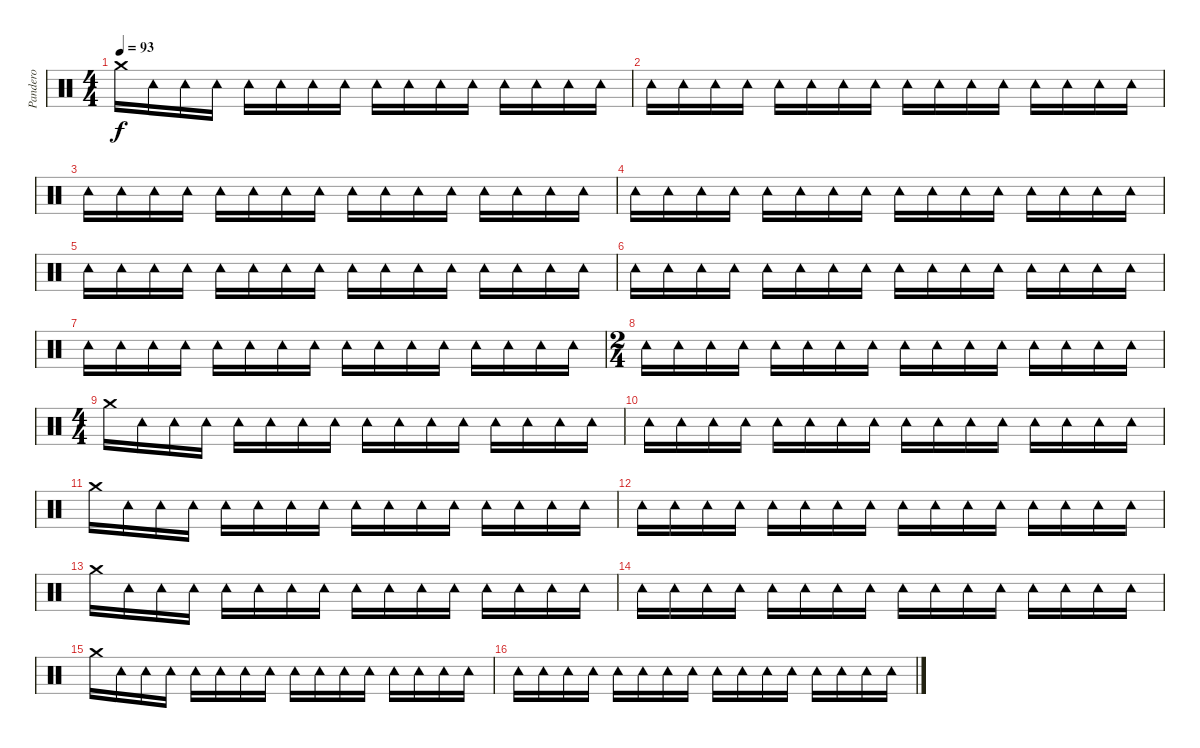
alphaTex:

\track ("Pandero" "Pandero") {instrument percussion bank 1}
\staff {score}
\articulation defaults
\ts (4 4)
\tempo 93
\clef neutral
\ks c "Crash medium (hit)".16{dy f} "Tambourine (hit)".16 "Tambourine (hit)".16 "Tambourine (hit)".16 "Tambourine (hit)".16 "Tambourine (hit)".16 "Tambourine (hit)".16 "Tambourine (hit)".16 "Tambourine (hit)".16 "Tambourine (hit)".16 "Tambourine (hit)".16 "Tambourine (hit)".16 "Tambourine (hit)".16 "Tambourine (hit)".16 "Tambourine (hit)".16 "Tambourine (hit)".16
|
"Tambourine (hit)".16 "Tambourine (hit)".16 "Tambourine (hit)".16 "Tambourine (hit)".16 "Tambourine (hit)".16 "Tambourine (hit)".16 "Tambourine (hit)".16 "Tambourine (hit)".16 "Tambourine (hit)".16 "Tambourine (hit)".16 "Tambourine (hit)".16 "Tambourine (hit)".16 "Tambourine (hit)".16 "Tambourine (hit)".16 "Tambourine (hit)".16 "Tambourine (hit)".16 |
"Tambourine (hit)".16 "Tambourine (hit)".16 "Tambourine (hit)".16 "Tambourine (hit)".16 "Tambourine (hit)".16 "Tambourine (hit)".16 "Tambourine (hit)".16 "Tambourine (hit)".16 "Tambourine (hit)".16 "Tambourine (hit)".16 "Tambourine (hit)".16 "Tambourine (hit)".16 "Tambourine (hit)".16 "Tambourine (hit)".16 "Tambourine (hit)".16 "Tambourine (hit)".16 |
"Tambourine (hit)".16 "Tambourine (hit)".16 "Tambourine (hit)".16 "Tambourine (hit)".16 "Tambourine (hit)".16 "Tambourine (hit)".16 "Tambourine (hit)".16 "Tambourine (hit)".16 "Tambourine (hit)".16 "Tambourine (hit)".16 "Tambourine (hit)".16 "Tambourine (hit)".16 "Tambourine (hit)".16 "Tambourine (hit)".16 "Tambourine (hit)".16 "Tambourine (hit)".16 |
"Tambourine (hit)".16 "Tambourine (hit)".16 "Tambourine (hit)".16 "Tambourine (hit)".16 "Tambourine (hit)".16 "Tambourine (hit)".16 "Tambourine (hit)".16 "Tambourine (hit)".16 "Tambourine (hit)".16 "Tambourine (hit)".16 "Tambourine (hit)".16 "Tambourine (hit)".16 "Tambourine (hit)".16 "Tambourine (hit)".16 "Tambourine (hit)".16 "Tambourine (hit)".16 |
"Tambourine (hit)".16 "Tambourine (hit)".16 "Tambourine (hit)".16 "Tambourine (hit)".16 "Tambourine (hit)".16 "Tambourine (hit)".16 "Tambourine (hit)".16 "Tambourine (hit)".16 "Tambourine (hit)".16 "Tambourine (hit)".16 "Tambourine (hit)".16 "Tambourine (hit)".16 "Tambourine (hit)".16 "Tambourine (hit)".16 "Tambourine (hit)".16 "Tambourine (hit)".16 |
"Tambourine (hit)".16 "Tambourine (hit)".16 "Tambourine (hit)".16 "Tambourine (hit)".16 "Tambourine (hit)".16 "Tambourine (hit)".16 "Tambourine (hit)".16 "Tambourine (hit)".16 "Tambourine (hit)".16 "Tambourine (hit)".16 "Tambourine (hit)".16 "Tambourine (hit)".16 "Tambourine (hit)".16 "Tambourine (hit)".16 "Tambourine (hit)".16 "Tambourine (hit)".16 |
\ts (2 4)
"Tambourine (hit)".16 "Tambourine (hit)".16 "Tambourine (hit)".16 "Tambourine (hit)".16 "Tambourine (hit)".16 "Tambourine (hit)".16 "Tambourine (hit)".16 "Tambourine (hit)".16 "Tambourine (hit)".16 "Tambourine (hit)".16 "Tambourine (hit)".16 "Tambourine (hit)".16 "Tambourine (hit)".16 "Tambourine (hit)".16 "Tambourine (hit)".16 "Tambourine (hit)".16 |
\ts (4 4)
"Crash medium (hit)".16 "Tambourine (hit)".16 "Tambourine (hit)".16 "Tambourine (hit)".16 "Tambourine (hit)".16 "Tambourine (hit)".16 "Tambourine (hit)".16 "Tambourine (hit)".16 "Tambourine (hit)".16 "Tambourine (hit)".16 "Tambourine (hit)".16 "Tambourine (hit)".16 "Tambourine (hit)".16 "Tambourine (hit)".16 "Tambourine (hit)".16 "Tambourine (hit)".16 |
"Tambourine (hit)".16 "Tambourine (hit)".16 "Tambourine (hit)".16 "Tambourine (hit)".16 "Tambourine (hit)".16 "Tambourine (hit)".16 "Tambourine (hit)".16 "Tambourine (hit)".16 "Tambourine (hit)".16 "Tambourine (hit)".16 "Tambourine (hit)".16 "Tambourine (hit)".16 "Tambourine (hit)".16 "Tambourine (hit)".16 "Tambourine (hit)".16 "Tambourine (hit)".16 |
"Crash medium (hit)".16 "Tambourine (hit)".16 "Tambourine (hit)".16 "Tambourine (hit)".16 "Tambourine (hit)".16 "Tambourine (hit)".16 "Tambourine (hit)".16 "Tambourine (hit)".16 "Tambourine (hit)".16 "Tambourine (hit)".16 "Tambourine (hit)".16 "Tambourine (hit)".16 "Tambourine (hit)".16 "Tambourine (hit)".16 "Tambourine (hit)".16 "Tambourine (hit)".16 |
"Tambourine (hit)".16 "Tambourine (hit)".16 "Tambourine (hit)".16 "Tambourine (hit)".16 "Tambourine (hit)".16 "Tambourine (hit)".16 "Tambourine (hit)".16 "Tambourine (hit)".16 "Tambourine (hit)".16 "Tambourine (hit)".16 "Tambourine (hit)".16 "Tambourine (hit)".16 "Tambourine (hit)".16 "Tambourine (hit)".16 "Tambourine (hit)".16 "Tambourine (hit)".16 |
"Crash medium (hit)".16 "Tambourine (hit)".16 "Tambourine (hit)".16 "Tambourine (hit)".16 "Tambourine (hit)".16 "Tambourine (hit)".16 "Tambourine (hit)".16 "Tambourine (hit)".16 "Tambourine (hit)".16 "Tambourine (hit)".16 "Tambourine (hit)".16 "Tambourine (hit)".16 "Tambourine (hit)".16 "Tambourine (hit)".16 "Tambourine (hit)".16 "Tambourine (hit)".16 |
"Tambourine (hit)".16 "Tambourine (hit)".16 "Tambourine (hit)".16 "Tambourine (hit)".16 "Tambourine (hit)".16 "Tambourine (hit)".16 "Tambourine (hit)".16 "Tambourine (hit)".16 "Tambourine (hit)".16 "Tambourine (hit)".16 "Tambourine (hit)".16 "Tambourine (hit)".16 "Tambourine (hit)".16 "Tambourine (hit)".16 "Tambourine (hit)".16 "Tambourine (hit)".16 |
"Crash medium (hit)".16 "Tambourine (hit)".16 "Tambourine (hit)".16 "Tambourine (hit)".16 "Tambourine (hit)".16 "Tambourine (hit)".16 "Tambourine (hit)".16 "Tambourine (hit)".16 "Tambourine (hit)".16 "Tambourine (hit)".16 "Tambourine (hit)".16 "Tambourine (hit)".16 "Tambourine (hit)".16 "Tambourine (hit)".16 "Tambourine (hit)".16 "Tambourine (hit)".16 |
"Tambourine (hit)".16 "Tambourine (hit)".16 "Tambourine (hit)".16 "Tambourine (hit)".16 "Tambourine (hit)".16 "Tambourine (hit)".16 "Tambourine (hit)".16 "Tambourine (hit)".16 "Tambourine (hit)".16 "Tambourine (hit)".16 "Tambourine (hit)".16 "Tambourine (hit)".16 "Tambourine (hit)".16 "Tambourine (hit)".16 "Tambourine (hit)".16 "Tambourine (hit)".16
